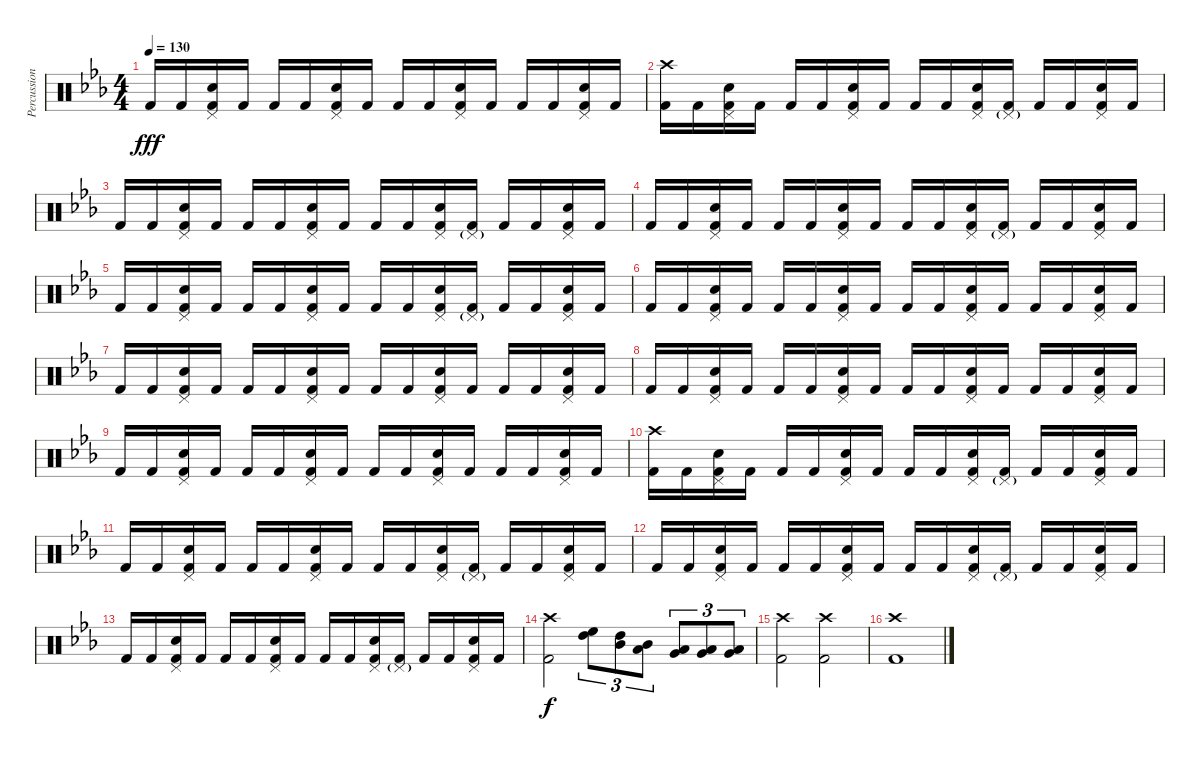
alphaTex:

\track ("Percussion" "Percussion") {instrument percussion}
\staff {score}
\articulation defaults
\ts (4 4)
\tempo 130
\clef neutral
\ks cminor "Kick (hit) 2".16{dy fff} "Kick (hit) 2".16
("Pedal Hi-Hat (hit)" "Electric Snare (hit)" "Kick (hit) 2").16 "Kick (hit) 2".16 "Kick (hit) 2".16 "Kick (hit) 2".16 ("Pedal Hi-Hat (hit)" "Electric Snare (hit)" "Kick (hit) 2").16 "Kick (hit) 2".16 "Kick (hit) 2".16 "Kick (hit) 2".16 ("Pedal Hi-Hat (hit)" "Electric Snare (hit)" "Kick (hit) 2").16 "Kick (hit) 2".16 "Kick (hit) 2".16 "Kick (hit) 2".16 ("Pedal Hi-Hat (hit)" "Electric Snare (hit)" "Kick (hit) 2").16 "Kick (hit) 2".16 |
("Crash high (hit)" "Kick (hit) 2").16 "Kick (hit) 2".16 ("Pedal Hi-Hat (hit)" "Electric Snare (hit)" "Kick (hit) 2").16 "Kick (hit) 2".16 "Kick (hit) 2".16 "Kick (hit) 2".16 ("Pedal Hi-Hat (hit)" "Electric Snare (hit)" "Kick (hit) 2").16 "Kick (hit) 2".16 "Kick (hit) 2".16 "Kick (hit) 2".16 ("Pedal Hi-Hat (hit)" "Electric Snare (hit)" "Kick (hit) 2").16 ("Pedal Hi-Hat (hit)"{g} "Kick (hit) 2").16 "Kick (hit) 2".16 "Kick (hit) 2".16 ("Pedal Hi-Hat (hit)" "Electric Snare (hit)" "Kick (hit) 2").16 "Kick (hit) 2".16 |
"Kick (hit) 2".16 "Kick (hit) 2".16 ("Pedal Hi-Hat (hit)" "Electric Snare (hit)" "Kick (hit) 2").16 "Kick (hit) 2".16 "Kick (hit) 2".16 "Kick (hit) 2".16 ("Pedal Hi-Hat (hit)" "Electric Snare (hit)" "Kick (hit) 2").16 "Kick (hit) 2".16 "Kick (hit) 2".16 "Kick (hit) 2".16 ("Pedal Hi-Hat (hit)" "Electric Snare (hit)" "Kick (hit) 2").16 ("Pedal Hi-Hat (hit)"{g} "Kick (hit) 2").16 "Kick (hit) 2".16 "Kick (hit) 2".16 ("Pedal Hi-Hat (hit)" "Electric Snare (hit)" "Kick (hit) 2").16 "Kick (hit) 2".16 |
"Kick (hit) 2".16 "Kick (hit) 2".16 ("Pedal Hi-Hat (hit)" "Electric Snare (hit)" "Kick (hit) 2").16 "Kick (hit) 2".16 "Kick (hit) 2".16 "Kick (hit) 2".16 ("Pedal Hi-Hat (hit)" "Electric Snare (hit)" "Kick (hit) 2").16 "Kick (hit) 2".16 "Kick (hit) 2".16 "Kick (hit) 2".16 ("Pedal Hi-Hat (hit)" "Electric Snare (hit)" "Kick (hit) 2").16 ("Pedal Hi-Hat (hit)"{g} "Kick (hit) 2").16 "Kick (hit) 2".16 "Kick (hit) 2".16 ("Pedal Hi-Hat (hit)" "Electric Snare (hit)" "Kick (hit) 2").16 "Kick (hit) 2".16 |
"Kick (hit) 2".16 "Kick (hit) 2".16 ("Pedal Hi-Hat (hit)" "Electric Snare (hit)" "Kick (hit) 2").16 "Kick (hit) 2".16 "Kick (hit) 2".16 "Kick (hit) 2".16 ("Pedal Hi-Hat (hit)" "Electric Snare (hit)" "Kick (hit) 2").16 "Kick (hit) 2".16 "Kick (hit) 2".16 "Kick (hit) 2".16 ("Pedal Hi-Hat (hit)" "Electric Snare (hit)" "Kick (hit) 2").16 ("Pedal Hi-Hat (hit)"{g} "Kick (hit) 2").16 "Kick (hit) 2".16 "Kick (hit) 2".16 ("Pedal Hi-Hat (hit)" "Electric Snare (hit)" "Kick (hit) 2").16 "Kick (hit) 2".16 |
"Kick (hit) 2".16 "Kick (hit) 2".16 ("Pedal Hi-Hat (hit)" "Electric Snare (hit)" "Kick (hit) 2").16 "Kick (hit) 2".16 "Kick (hit) 2".16 "Kick (hit) 2".16 ("Pedal Hi-Hat (hit)" "Electric Snare (hit)" "Kick (hit) 2").16 "Kick (hit) 2".16 "Kick (hit) 2".16 "Kick (hit) 2".16 ("Pedal Hi-Hat (hit)" "Electric Snare (hit)" "Kick (hit) 2").16 "Kick (hit) 2".16 "Kick (hit) 2".16 "Kick (hit) 2".16 ("Pedal Hi-Hat (hit)" "Electric Snare (hit)" "Kick (hit) 2").16 "Kick (hit) 2".16 |
"Kick (hit) 2".16 "Kick (hit) 2".16 ("Pedal Hi-Hat (hit)" "Electric Snare (hit)" "Kick (hit) 2").16 "Kick (hit) 2".16 "Kick (hit) 2".16 "Kick (hit) 2".16 ("Pedal Hi-Hat (hit)" "Electric Snare (hit)" "Kick (hit) 2").16 "Kick (hit) 2".16 "Kick (hit) 2".16 "Kick (hit) 2".16 ("Pedal Hi-Hat (hit)" "Electric Snare (hit)" "Kick (hit) 2").16 "Kick (hit) 2".16 "Kick (hit) 2".16 "Kick (hit) 2".16 ("Pedal Hi-Hat (hit)" "Electric Snare (hit)" "Kick (hit) 2").16 "Kick (hit) 2".16 |
"Kick (hit) 2".16 "Kick (hit) 2".16 ("Pedal Hi-Hat (hit)" "Electric Snare (hit)" "Kick (hit) 2").16 "Kick (hit) 2".16 "Kick (hit) 2".16 "Kick (hit) 2".16 ("Pedal Hi-Hat (hit)" "Electric Snare (hit)" "Kick (hit) 2").16 "Kick (hit) 2".16 "Kick (hit) 2".16 "Kick (hit) 2".16 ("Pedal Hi-Hat (hit)" "Electric Snare (hit)" "Kick (hit) 2").16 "Kick (hit) 2".16 "Kick (hit) 2".16 "Kick (hit) 2".16 ("Pedal Hi-Hat (hit)" "Electric Snare (hit)" "Kick (hit) 2").16 "Kick (hit) 2".16 |
"Kick (hit) 2".16 "Kick (hit) 2".16 ("Pedal Hi-Hat (hit)" "Electric Snare (hit)" "Kick (hit) 2").16 "Kick (hit) 2".16 "Kick (hit) 2".16 "Kick (hit) 2".16 ("Pedal Hi-Hat (hit)" "Electric Snare (hit)" "Kick (hit) 2").16 "Kick (hit) 2".16 "Kick (hit) 2".16 "Kick (hit) 2".16 ("Pedal Hi-Hat (hit)" "Electric Snare (hit)" "Kick (hit) 2").16 "Kick (hit) 2".16 "Kick (hit) 2".16 "Kick (hit) 2".16 ("Pedal Hi-Hat (hit)" "Electric Snare (hit)" "Kick (hit) 2").16 "Kick (hit) 2".16 |
("Crash high (hit)" "Kick (hit) 2").16 "Kick (hit) 2".16 ("Pedal Hi-Hat (hit)" "Electric Snare (hit)" "Kick (hit) 2").16 "Kick (hit) 2".16 "Kick (hit) 2".16 "Kick (hit) 2".16 ("Pedal Hi-Hat (hit)" "Electric Snare (hit)" "Kick (hit) 2").16 "Kick (hit) 2".16 "Kick (hit) 2".16 "Kick (hit) 2".16 ("Pedal Hi-Hat (hit)" "Electric Snare (hit)" "Kick (hit) 2").16 ("Pedal Hi-Hat (hit)"{g} "Kick (hit) 2").16 "Kick (hit) 2".16 "Kick (hit) 2".16 ("Pedal Hi-Hat (hit)" "Electric Snare (hit)" "Kick (hit) 2").16 "Kick (hit) 2".16 |
"Kick (hit) 2".16 "Kick (hit) 2".16 ("Pedal Hi-Hat (hit)" "Electric Snare (hit)" "Kick (hit) 2").16 "Kick (hit) 2".16 "Kick (hit) 2".16 "Kick (hit) 2".16 ("Pedal Hi-Hat (hit)" "Electric Snare (hit)" "Kick (hit) 2").16 "Kick (hit) 2".16 "Kick (hit) 2".16 "Kick (hit) 2".16 ("Pedal Hi-Hat (hit)" "Electric Snare (hit)" "Kick (hit) 2").16 ("Pedal Hi-Hat (hit)"{g} "Kick (hit) 2").16 "Kick (hit) 2".16 "Kick (hit) 2".16 ("Pedal Hi-Hat (hit)" "Electric Snare (hit)" "Kick (hit) 2").16 "Kick (hit) 2".16 |
"Kick (hit) 2".16 "Kick (hit) 2".16 ("Pedal Hi-Hat (hit)" "Electric Snare (hit)" "Kick (hit) 2").16 "Kick (hit) 2".16 "Kick (hit) 2".16 "Kick (hit) 2".16 ("Pedal Hi-Hat (hit)" "Electric Snare (hit)" "Kick (hit) 2").16 "Kick (hit) 2".16 "Kick (hit) 2".16 "Kick (hit) 2".16 ("Pedal Hi-Hat (hit)" "Electric Snare (hit)" "Kick (hit) 2").16 ("Pedal Hi-Hat (hit)"{g} "Kick (hit) 2").16 "Kick (hit) 2".16 "Kick (hit) 2".16 ("Pedal Hi-Hat (hit)" "Electric Snare (hit)" "Kick (hit) 2").16 "Kick (hit) 2".16 |
"Kick (hit) 2".16 "Kick (hit) 2".16 ("Pedal Hi-Hat (hit)" "Electric Snare (hit)" "Kick (hit) 2").16 "Kick (hit) 2".16 "Kick (hit) 2".16 "Kick (hit) 2".16 ("Pedal Hi-Hat (hit)" "Electric Snare (hit)" "Kick (hit) 2").16 "Kick (hit) 2".16 "Kick (hit) 2".16 "Kick (hit) 2".16 ("Pedal Hi-Hat (hit)" "Electric Snare (hit)" "Kick (hit) 2").16 ("Pedal Hi-Hat (hit)"{g} "Kick (hit) 2").16 "Kick (hit) 2".16 "Kick (hit) 2".16 ("Pedal Hi-Hat (hit)" "Electric Snare (hit)" "Kick (hit) 2").16 "Kick (hit) 2".16 |
("Crash high (hit)" "Kick (hit) 2").2{dy f} ("High Floor Tom (hit)" "High Tom (hit)").8{tu (3 2)} ("High Tom (hit)" "Mid Tom (hit)").8{tu (3 2)} ("Mid Tom (hit)" "Low Tom (hit)").8{tu (3 2)} ("Low Tom (hit)" "Very Low Tom (hit)").8{tu (3 2)} ("Low Tom (hit)" "Very Low Tom (hit)").8{tu (3 2)} ("Low Tom (hit)" "Very Low Tom (hit)").8{tu (3 2)} |
("Crash high (hit)" "Kick (hit) 2").2 ("Crash high (hit)" "Kick (hit) 2").2 |
("Crash high (hit)" "Kick (hit) 2").1
